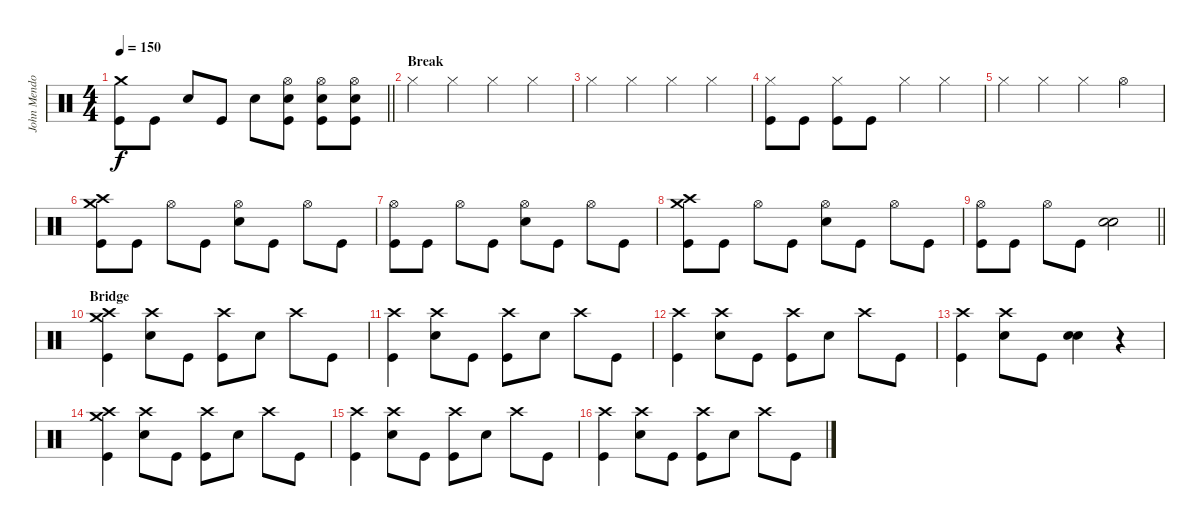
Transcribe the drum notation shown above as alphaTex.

\track ("John Mendoza" "John Mendo") {instrument percussion}
\staff {score}
\articulation defaults
\ts (4 4)
\tempo 150
\clef neutral
\barLineRight lightlight
\ks c
("Crash medium (hit)" "Kick (hit)").8{dy f} "Kick (hit)".8 "Snare (hit) 2".8 "Kick (hit)".8 "Snare (hit) 2".8 ("Hi-Hat (open)" "Snare (hit) 2" "Kick (hit)").8 ("Hi-Hat (open)" "Snare (hit) 2" "Kick (hit)").8 ("Hi-Hat (open)" "Snare (hit) 2" "Kick (hit)").8 |
\section ("" "Break")
"Hi-Hat (closed)".4 "Hi-Hat (closed)".4 "Hi-Hat (closed)".4 "Hi-Hat (closed)".4 |
"Hi-Hat (closed)".4 "Hi-Hat (closed)".4 "Hi-Hat (closed)".4 "Hi-Hat (closed)".4 |
("Hi-Hat (closed)" "Kick (hit)").8 "Kick (hit)".8 ("Hi-Hat (closed)" "Kick (hit)").8 "Kick (hit)".8 "Hi-Hat (closed)".4 "Hi-Hat (closed)".4 |
"Hi-Hat (closed)".4 "Hi-Hat (closed)".4 "Hi-Hat (closed)".4 "Hi-Hat (open)".4 |
("Crash medium (hit)" "Crash high (hit)" "Kick (hit)").8 "Kick (hit)".8 "Hi-Hat (open)".8 "Kick (hit)".8 ("Hi-Hat (open)" "Snare (hit) 2").8 "Kick (hit)".8 "Hi-Hat (open)".8 "Kick (hit)".8 |
("Hi-Hat (open)" "Kick (hit)").8 "Kick (hit)".8 "Hi-Hat (open)".8 "Kick (hit)".8 ("Hi-Hat (open)" "Snare (hit) 2").8 "Kick (hit)".8 "Hi-Hat (open)".8 "Kick (hit)".8 |
("Crash medium (hit)" "Crash high (hit)" "Kick (hit)").8 "Kick (hit)".8 "Hi-Hat (open)".8 "Kick (hit)".8 ("Hi-Hat (open)" "Snare (hit) 2").8 "Kick (hit)".8 "Hi-Hat (open)".8 "Kick (hit)".8 |
\barLineRight lightlight
("Hi-Hat (open)" "Kick (hit)").8 "Kick (hit)".8 "Hi-Hat (open)".8 "Kick (hit)".8 ("Snare (hit) 2" "Snare (hit) 2").2 |
\section ("" "Bridge")
("Crash medium (hit)" "Crash high (hit)" "Kick (hit)").4 ("Crash high (hit)" "Snare (hit) 2").8 "Kick (hit)".8 ("Crash high (hit)" "Kick (hit)").8 "Snare (hit) 2".8 "Crash high (hit)".8 "Kick (hit)".8 |
("Crash high (hit)" "Kick (hit)").4 ("Crash high (hit)" "Snare (hit) 2").8 "Kick (hit)".8 ("Crash high (hit)" "Kick (hit)").8 "Snare (hit) 2".8 "Crash high (hit)".8 "Kick (hit)".8 |
("Crash high (hit)" "Kick (hit)").4 ("Crash high (hit)" "Snare (hit) 2").8 "Kick (hit)".8 ("Crash high (hit)" "Kick (hit)").8 "Snare (hit) 2".8 "Crash high (hit)".8 "Kick (hit)".8 |
("Crash high (hit)" "Kick (hit)").4 ("Crash high (hit)" "Snare (hit) 2").8 "Kick (hit)".8 ("Snare (hit) 2" "Snare (hit) 2").4 r.4 |
("Crash medium (hit)" "Crash high (hit)" "Kick (hit)").4 ("Crash high (hit)" "Snare (hit) 2").8 "Kick (hit)".8 ("Crash high (hit)" "Kick (hit)").8 "Snare (hit) 2".8 "Crash high (hit)".8 "Kick (hit)".8 |
("Crash high (hit)" "Kick (hit)").4 ("Crash high (hit)" "Snare (hit) 2").8 "Kick (hit)".8 ("Crash high (hit)" "Kick (hit)").8 "Snare (hit) 2".8 "Crash high (hit)".8 "Kick (hit)".8 |
("Crash high (hit)" "Kick (hit)").4 ("Crash high (hit)" "Snare (hit) 2").8 "Kick (hit)".8 ("Crash high (hit)" "Kick (hit)").8 "Snare (hit) 2".8 "Crash high (hit)".8 "Kick (hit)".8
